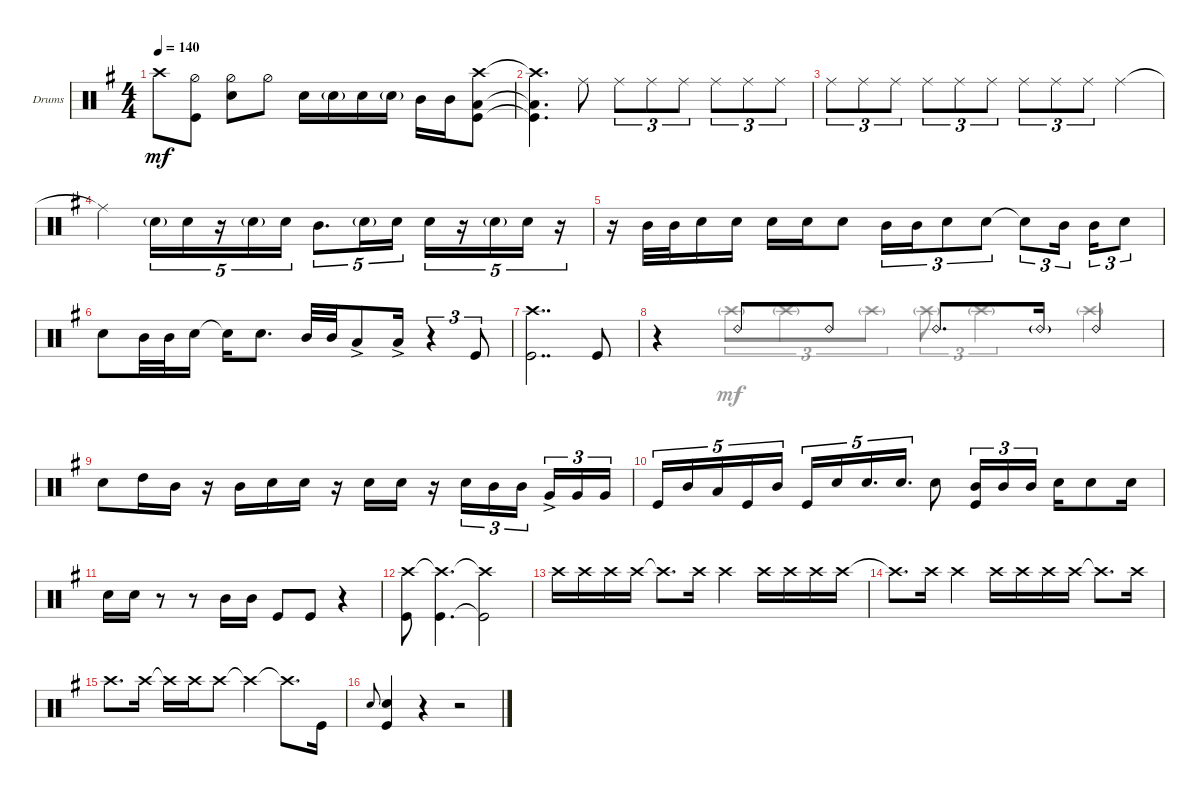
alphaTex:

\defaultSystemsLayout 4
\bracketExtendMode groupsimilarinstruments
\firstSystemTrackNameOrientation horizontal
\otherSystemsTrackNameOrientation horizontal
\track ("Drumkit" "Drums") {instrument percussion}
\staff {score}
\articulation defaults
\voice
\ts (4 4)
\tempo 140
\clef neutral
\ks g "Crash high (hit)"{t}.8{dy mf}
("Kick (hit)" "Hi-Hat (half)").8 ("Hi-Hat (half)" "Snare (hit) 2").8 "Hi-Hat (half)".8 "Snare (hit) 2".16 "Snare (hit) 2"{g}.16 "Snare (hit) 2".16 "Snare (hit) 2"{g}.16 "Mid Tom (hit)".16 "Mid Tom (hit)".16 ("Kick (hit)" "Low Tom (hit)" "Crash high (hit)").8 |
("Kick (hit)"{t} "Low Tom (hit)"{t} "Crash high (hit)"{t}).4{d} "Ride (middle)".8 "Ride (middle)".8{tu (3 2)} "Ride (middle)".8{tu (3 2)} "Ride (middle)".8{tu (3 2)} "Ride (middle)".8{tu (3 2)} "Ride (middle)".8{tu (3 2)} "Ride (middle)".8{tu (3 2)} |
"Ride (middle)".8{tu (3 2)} "Ride (middle)".8{tu (3 2)} "Ride (middle)".8{tu (3 2)} "Ride (middle)".8{tu (3 2)} "Ride (middle)".8{tu (3 2)} "Ride (middle)".8{tu (3 2)} "Ride (middle)".8{tu (3 2)} "Ride (middle)".8{tu (3 2)} "Ride (middle)".8{tu (3 2)} "Ride (middle)".4 |
"Ride (middle)"{t}.4 "Snare (hit) 2"{g}.16{tu (5 4)} "Snare (hit) 2".16{tu (5 4)} r.16{tu (5 4)} "Snare (hit) 2"{g}.16{tu (5 4)} "Snare (hit) 2".16{tu (5 4)} "Mid Tom (hit)".8{d tu (5 4)} "Snare (hit) 2"{g}.16{tu (5 4)} "Snare (hit) 2".16{tu (5 4)} "Snare (hit) 2".16{tu (5 4)} r.16{tu (5 4)} "Snare (hit) 2"{g}.16{tu (5 4)} "Snare (hit) 2".16{tu (5 4)} r.16{tu (5 4)} |
r.16 "Mid Tom (hit)".32 "Mid Tom (hit)".32 "Snare (hit) 2".16 "Snare (hit) 2".16 "Snare (hit) 2".16 "Snare (hit) 2".16 "Snare (hit) 2".8 "Mid Tom (hit)".16{tu (3 2)} "Mid Tom (hit)".16{tu (3 2)} "Snare (hit) 2".8{tu (3 2)} "Snare (hit) 2".8{tu (3 2)} "Snare (hit) 2"{t}.8{tu (3 2)} "Mid Tom (hit)".16{tu (3 2)} "Mid Tom (hit)".16{tu (3 2)} "Snare (hit) 2".8{tu (3 2)} |
"Snare (hit) 2".8 "Mid Tom (hit)".32 "Mid Tom (hit)".32 "Snare (hit) 2".16 "Snare (hit) 2"{t}.16 "Snare (hit) 2".8{d} "Mid Tom (hit)".32 "Mid Tom (hit)".32 "Low Tom (hit)"{ac}.8 "Low Tom (hit)"{ac}.16 r.4{tu (3 2)} "Kick (hit)".8{tu (3 2)} |
("Kick (hit)" "Crash high (hit)").2{dd} "Kick (hit)".8 |
r.4 "Ride (bell) 2".8 "Ride (bell) 2".8 "Ride (bell) 2".8{d} "Ride (bell) 2"{g}.16 "Ride (bell) 2".4 |
"Snare (hit) 2".8 "High Tom (hit)".16 "Mid Tom (hit)".16 r.16 "Mid Tom (hit)".16 "Snare (hit) 2".16 "Snare (hit) 2".16 r.16 "Snare (hit) 2".16 "Snare (hit) 2".16 r.16 "Snare (hit) 2".16{tu (3 2)} "Mid Tom (hit)".16{tu (3 2)} "Mid Tom (hit)".16{tu (3 2)} "Very Low Tom (hit)"{ac}.16{tu (3 2)} "Very Low Tom (hit)".16{tu (3 2)} "Very Low Tom (hit)".16{tu (3 2)} |
"Kick (hit)".16{tu (5 4)} "Mid Tom (hit)".16{tu (5 4)} "Low Tom (hit)".16{tu (5 4)} "Kick (hit)".16{tu (5 4)} "Mid Tom (hit)".16{tu (5 4)} "Kick (hit)".16{tu (5 4)} "Snare (hit) 2".16{tu (5 4)} "Snare (hit) 2".16{d tu (5 4)} "Snare (hit) 2".16{d tu (5 4)} "Snare (hit) 2".8 ("Mid Tom (hit)" "Kick (hit)").16{tu (3 2)} "Mid Tom (hit)".16{tu (3 2)} "Mid Tom (hit)".16{tu (3 2)} "Snare (hit) 2".16 "Snare (hit) 2".8 "Snare (hit) 2".16 |
"Snare (hit) 2".16 "Snare (hit) 2".16 r.8 r.8 "Mid Tom (hit)".16 "Mid Tom (hit)".16 "Kick (hit)".8 "Kick (hit)".8 r.4 |
("Kick (hit)" "Crash high (hit)").8 ("Kick (hit)" "Crash high (hit)"{t}).4{d} ("Kick (hit)"{t} "Crash high (hit)"{t}).2 |
"Crash high (hit)".16 "Crash high (hit)".16 "Crash high (hit)".16 "Crash high (hit)".16 "Crash high (hit)"{t}.8{d} "Crash high (hit)".16 "Crash high (hit)".4 "Crash high (hit)".16 "Crash high (hit)".16 "Crash high (hit)".16 "Crash high (hit)".16 |
"Crash high (hit)"{t}.8{d} "Crash high (hit)".16 "Crash high (hit)".4 "Crash high (hit)".16 "Crash high (hit)".16 "Crash high (hit)".16 "Crash high (hit)".16 "Crash high (hit)"{t}.8{d} "Crash high (hit)".16 |
"Crash high (hit)".8{d} "Crash high (hit)".16 "Crash high (hit)"{t}.16 "Crash high (hit)".16 "Crash high (hit)".8 "Crash high (hit)"{t}.4 "Crash high (hit)"{t}.8{d} "Kick (hit)".16 |
"Snare (hit) 2".8{gr onbeat} ("Kick (hit)" "Snare (hit) 2").4 r.4 r.2
\voice
\clef neutral
\ottava regular
\simile none
\ks g
|
|
|
|
|
|
|
r.4 "Crash high (hit)"{g}.8{tu (3 2)} "Crash high (hit)"{g}.8{tu (3 2)} "Crash high (hit)"{g}.8{tu (3 2)} "Crash high (hit)"{g}.8{tu (3 2)} "Crash high (hit)"{g}.4{tu (3 2)} "Crash high (hit)"{g}.4 |
|
|
|
|
|
|
|
